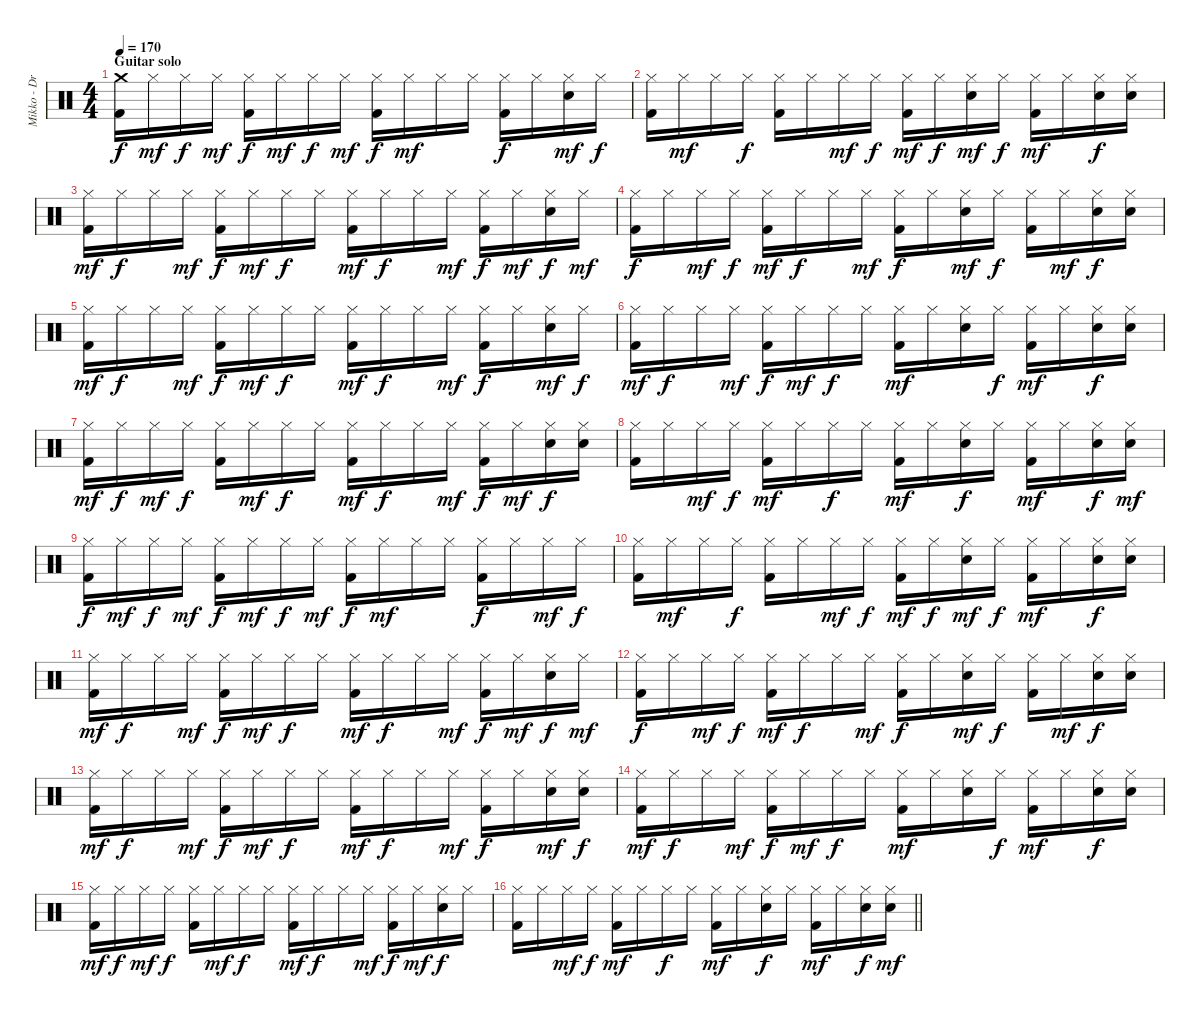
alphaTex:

\track ("Mikko - Drums" "Mikko - Dr") {instrument percussion}
\staff {score}
\articulation defaults
\ts (4 4)
\section ("" "Guitar solo")
\tempo 170
\clef neutral
\ks c
("Crash medium (hit)" "Kick (hit) 2").16{dy f} "Hi-Hat (closed)".16{dy mf} "Hi-Hat (closed)".16{dy f} "Hi-Hat (closed)".16{dy mf} ("Hi-Hat (closed)" "Kick (hit) 2").16{dy f} "Hi-Hat (closed)".16{dy mf} "Hi-Hat (closed)".16{dy f} "Hi-Hat (closed)".16{dy mf} ("Hi-Hat (closed)" "Kick (hit) 2").16{dy f} "Hi-Hat (closed)".16{dy mf} "Hi-Hat (closed)".16 "Hi-Hat (closed)".16 ("Hi-Hat (closed)" "Kick (hit) 2").16{dy f} "Hi-Hat (closed)".16 ("Hi-Hat (closed)" "Snare (hit) 2").16{dy mf} "Hi-Hat (closed)".16{dy f} |
("Hi-Hat (closed)" "Kick (hit) 2").16 "Hi-Hat (closed)".16{dy mf} "Hi-Hat (closed)".16 "Hi-Hat (closed)".16{dy f} ("Hi-Hat (closed)" "Kick (hit) 2").16 "Hi-Hat (closed)".16 "Hi-Hat (closed)".16{dy mf} "Hi-Hat (closed)".16{dy f} ("Hi-Hat (closed)" "Kick (hit) 2").16{dy mf} "Hi-Hat (closed)".16{dy f} ("Hi-Hat (closed)" "Snare (hit) 2").16{dy mf} "Hi-Hat (closed)".16{dy f} ("Hi-Hat (closed)" "Kick (hit) 2").16{dy mf} "Hi-Hat (closed)".16 ("Hi-Hat (closed)" "Snare (hit) 2").16{dy f} ("Hi-Hat (closed)" "Snare (hit) 2").16 |
("Hi-Hat (closed)" "Kick (hit) 2").16{dy mf} "Hi-Hat (closed)".16{dy f} "Hi-Hat (closed)".16 "Hi-Hat (closed)".16{dy mf} ("Hi-Hat (closed)" "Kick (hit) 2").16{dy f} "Hi-Hat (closed)".16{dy mf} "Hi-Hat (closed)".16{dy f} "Hi-Hat (closed)".16 ("Hi-Hat (closed)" "Kick (hit) 2").16{dy mf} "Hi-Hat (closed)".16{dy f} "Hi-Hat (closed)".16 "Hi-Hat (closed)".16{dy mf} ("Hi-Hat (closed)" "Kick (hit) 2").16{dy f} "Hi-Hat (closed)".16{dy mf} ("Hi-Hat (closed)" "Snare (hit) 2").16{dy f} "Hi-Hat (closed)".16{dy mf} |
("Hi-Hat (closed)" "Kick (hit) 2").16{dy f} "Hi-Hat (closed)".16 "Hi-Hat (closed)".16{dy mf} "Hi-Hat (closed)".16{dy f} ("Hi-Hat (closed)" "Kick (hit) 2").16{dy mf} "Hi-Hat (closed)".16{dy f} "Hi-Hat (closed)".16 "Hi-Hat (closed)".16{dy mf} ("Hi-Hat (closed)" "Kick (hit) 2").16{dy f} "Hi-Hat (closed)".16 ("Hi-Hat (closed)" "Snare (hit) 2").16{dy mf} "Hi-Hat (closed)".16{dy f} ("Hi-Hat (closed)" "Kick (hit) 2").16 "Hi-Hat (closed)".16{dy mf} ("Hi-Hat (closed)" "Snare (hit) 2").16{dy f} ("Hi-Hat (closed)" "Snare (hit) 2").16 |
("Hi-Hat (closed)" "Kick (hit) 2").16{dy mf} "Hi-Hat (closed)".16{dy f} "Hi-Hat (closed)".16 "Hi-Hat (closed)".16{dy mf} ("Hi-Hat (closed)" "Kick (hit) 2").16{dy f} "Hi-Hat (closed)".16{dy mf} "Hi-Hat (closed)".16{dy f} "Hi-Hat (closed)".16 ("Hi-Hat (closed)" "Kick (hit) 2").16{dy mf} "Hi-Hat (closed)".16{dy f} "Hi-Hat (closed)".16 "Hi-Hat (closed)".16{dy mf} ("Hi-Hat (closed)" "Kick (hit) 2").16{dy f} "Hi-Hat (closed)".16 ("Hi-Hat (closed)" "Snare (hit) 2").16{dy mf} "Hi-Hat (closed)".16{dy f} |
("Hi-Hat (closed)" "Kick (hit) 2").16{dy mf} "Hi-Hat (closed)".16{dy f} "Hi-Hat (closed)".16 "Hi-Hat (closed)".16{dy mf} ("Hi-Hat (closed)" "Kick (hit) 2").16{dy f} "Hi-Hat (closed)".16{dy mf} "Hi-Hat (closed)".16{dy f} "Hi-Hat (closed)".16 ("Hi-Hat (closed)" "Kick (hit) 2").16{dy mf} "Hi-Hat (closed)".16 ("Hi-Hat (closed)" "Snare (hit) 2").16 "Hi-Hat (closed)".16{dy f} ("Hi-Hat (closed)" "Kick (hit) 2").16{dy mf} "Hi-Hat (closed)".16 ("Hi-Hat (closed)" "Snare (hit) 2").16{dy f} ("Hi-Hat (closed)" "Snare (hit) 2").16 |
("Hi-Hat (closed)" "Kick (hit) 2").16{dy mf} "Hi-Hat (closed)".16{dy f} "Hi-Hat (closed)".16{dy mf} "Hi-Hat (closed)".16{dy f} ("Hi-Hat (closed)" "Kick (hit) 2").16 "Hi-Hat (closed)".16{dy mf} "Hi-Hat (closed)".16{dy f} "Hi-Hat (closed)".16 ("Hi-Hat (closed)" "Kick (hit) 2").16{dy mf} "Hi-Hat (closed)".16{dy f} "Hi-Hat (closed)".16 "Hi-Hat (closed)".16{dy mf} ("Hi-Hat (closed)" "Kick (hit) 2").16{dy f} "Hi-Hat (closed)".16{dy mf} ("Hi-Hat (closed)" "Snare (hit) 2").16{dy f} ("Hi-Hat (closed)" "Snare (hit) 2").16 |
("Hi-Hat (closed)" "Kick (hit) 2").16 "Hi-Hat (closed)".16 "Hi-Hat (closed)".16{dy mf} "Hi-Hat (closed)".16{dy f} ("Hi-Hat (closed)" "Kick (hit) 2").16{dy mf} "Hi-Hat (closed)".16 "Hi-Hat (closed)".16{dy f} "Hi-Hat (closed)".16 ("Hi-Hat (closed)" "Kick (hit) 2").16{dy mf} "Hi-Hat (closed)".16 ("Hi-Hat (closed)" "Snare (hit) 2").16{dy f} "Hi-Hat (closed)".16 ("Hi-Hat (closed)" "Kick (hit) 2").16{dy mf} "Hi-Hat (closed)".16 ("Hi-Hat (closed)" "Snare (hit) 2").16{dy f} ("Hi-Hat (closed)" "Snare (hit) 2").16{dy mf} |
("Hi-Hat (closed)" "Kick (hit) 2").16{dy f} "Hi-Hat (closed)".16{dy mf} "Hi-Hat (closed)".16{dy f} "Hi-Hat (closed)".16{dy mf} ("Hi-Hat (closed)" "Kick (hit) 2").16{dy f} "Hi-Hat (closed)".16{dy mf} "Hi-Hat (closed)".16{dy f} "Hi-Hat (closed)".16{dy mf} ("Hi-Hat (closed)" "Kick (hit) 2").16{dy f} "Hi-Hat (closed)".16{dy mf} "Hi-Hat (closed)".16 "Hi-Hat (closed)".16 ("Hi-Hat (closed)" "Kick (hit) 2").16{dy f} "Hi-Hat (closed)".16 "Hi-Hat (closed)".16{dy mf} "Hi-Hat (closed)".16{dy f} |
("Hi-Hat (closed)" "Kick (hit) 2").16 "Hi-Hat (closed)".16{dy mf} "Hi-Hat (closed)".16 "Hi-Hat (closed)".16{dy f} ("Hi-Hat (closed)" "Kick (hit) 2").16 "Hi-Hat (closed)".16 "Hi-Hat (closed)".16{dy mf} "Hi-Hat (closed)".16{dy f} ("Hi-Hat (closed)" "Kick (hit) 2").16{dy mf} "Hi-Hat (closed)".16{dy f} ("Hi-Hat (closed)" "Snare (hit) 2").16{dy mf} "Hi-Hat (closed)".16{dy f} ("Hi-Hat (closed)" "Kick (hit) 2").16{dy mf} "Hi-Hat (closed)".16 ("Hi-Hat (closed)" "Snare (hit) 2").16{dy f} ("Hi-Hat (closed)" "Snare (hit) 2").16 |
("Hi-Hat (closed)" "Kick (hit) 2").16{dy mf} "Hi-Hat (closed)".16{dy f} "Hi-Hat (closed)".16 "Hi-Hat (closed)".16{dy mf} ("Hi-Hat (closed)" "Kick (hit) 2").16{dy f} "Hi-Hat (closed)".16{dy mf} "Hi-Hat (closed)".16{dy f} "Hi-Hat (closed)".16 ("Hi-Hat (closed)" "Kick (hit) 2").16{dy mf} "Hi-Hat (closed)".16{dy f} "Hi-Hat (closed)".16 "Hi-Hat (closed)".16{dy mf} ("Hi-Hat (closed)" "Kick (hit) 2").16{dy f} "Hi-Hat (closed)".16{dy mf} ("Hi-Hat (closed)" "Snare (hit) 2").16{dy f} "Hi-Hat (closed)".16{dy mf} |
("Hi-Hat (closed)" "Kick (hit) 2").16{dy f} "Hi-Hat (closed)".16 "Hi-Hat (closed)".16{dy mf} "Hi-Hat (closed)".16{dy f} ("Hi-Hat (closed)" "Kick (hit) 2").16{dy mf} "Hi-Hat (closed)".16{dy f} "Hi-Hat (closed)".16 "Hi-Hat (closed)".16{dy mf} ("Hi-Hat (closed)" "Kick (hit) 2").16{dy f} "Hi-Hat (closed)".16 ("Hi-Hat (closed)" "Snare (hit) 2").16{dy mf} "Hi-Hat (closed)".16{dy f} ("Hi-Hat (closed)" "Kick (hit) 2").16 "Hi-Hat (closed)".16{dy mf} ("Hi-Hat (closed)" "Snare (hit) 2").16{dy f} ("Hi-Hat (closed)" "Snare (hit) 2").16 |
("Hi-Hat (closed)" "Kick (hit) 2").16{dy mf} "Hi-Hat (closed)".16{dy f} "Hi-Hat (closed)".16 "Hi-Hat (closed)".16{dy mf} ("Hi-Hat (closed)" "Kick (hit) 2").16{dy f} "Hi-Hat (closed)".16{dy mf} "Hi-Hat (closed)".16{dy f} "Hi-Hat (closed)".16 ("Hi-Hat (closed)" "Kick (hit) 2").16{dy mf} "Hi-Hat (closed)".16{dy f} "Hi-Hat (closed)".16 "Hi-Hat (closed)".16{dy mf} ("Hi-Hat (closed)" "Kick (hit) 2").16{dy f} "Hi-Hat (closed)".16 ("Hi-Hat (closed)" "Snare (hit) 2").16{dy mf} ("Hi-Hat (closed)" "Snare (hit) 2").16{dy f} |
("Hi-Hat (closed)" "Kick (hit) 2").16{dy mf} "Hi-Hat (closed)".16{dy f} "Hi-Hat (closed)".16 "Hi-Hat (closed)".16{dy mf} ("Hi-Hat (closed)" "Kick (hit) 2").16{dy f} "Hi-Hat (closed)".16{dy mf} "Hi-Hat (closed)".16{dy f} "Hi-Hat (closed)".16 ("Hi-Hat (closed)" "Kick (hit) 2").16{dy mf} "Hi-Hat (closed)".16 ("Hi-Hat (closed)" "Snare (hit) 2").16 "Hi-Hat (closed)".16{dy f} ("Hi-Hat (closed)" "Kick (hit) 2").16{dy mf} "Hi-Hat (closed)".16 ("Hi-Hat (closed)" "Snare (hit) 2").16{dy f} ("Hi-Hat (closed)" "Snare (hit) 2").16 |
("Hi-Hat (closed)" "Kick (hit) 2").16{dy mf} "Hi-Hat (closed)".16{dy f} "Hi-Hat (closed)".16{dy mf} "Hi-Hat (closed)".16{dy f} ("Hi-Hat (closed)" "Kick (hit) 2").16 "Hi-Hat (closed)".16{dy mf} "Hi-Hat (closed)".16{dy f} "Hi-Hat (closed)".16 ("Hi-Hat (closed)" "Kick (hit) 2").16{dy mf} "Hi-Hat (closed)".16{dy f} "Hi-Hat (closed)".16 "Hi-Hat (closed)".16{dy mf} ("Hi-Hat (closed)" "Kick (hit) 2").16{dy f} "Hi-Hat (closed)".16{dy mf} ("Hi-Hat (closed)" "Snare (hit) 2").16{dy f} "Hi-Hat (closed)".16 |
\barLineRight lightlight
("Hi-Hat (closed)" "Kick (hit) 2").16 "Hi-Hat (closed)".16 "Hi-Hat (closed)".16{dy mf} "Hi-Hat (closed)".16{dy f} ("Hi-Hat (closed)" "Kick (hit) 2").16{dy mf} "Hi-Hat (closed)".16 "Hi-Hat (closed)".16{dy f} "Hi-Hat (closed)".16 ("Hi-Hat (closed)" "Kick (hit) 2").16{dy mf} "Hi-Hat (closed)".16 ("Hi-Hat (closed)" "Snare (hit) 2").16{dy f} "Hi-Hat (closed)".16 ("Hi-Hat (closed)" "Kick (hit) 2").16{dy mf} "Hi-Hat (closed)".16 ("Hi-Hat (closed)" "Snare (hit) 2").16{dy f} ("Hi-Hat (closed)" "Snare (hit) 2").16{dy mf}
